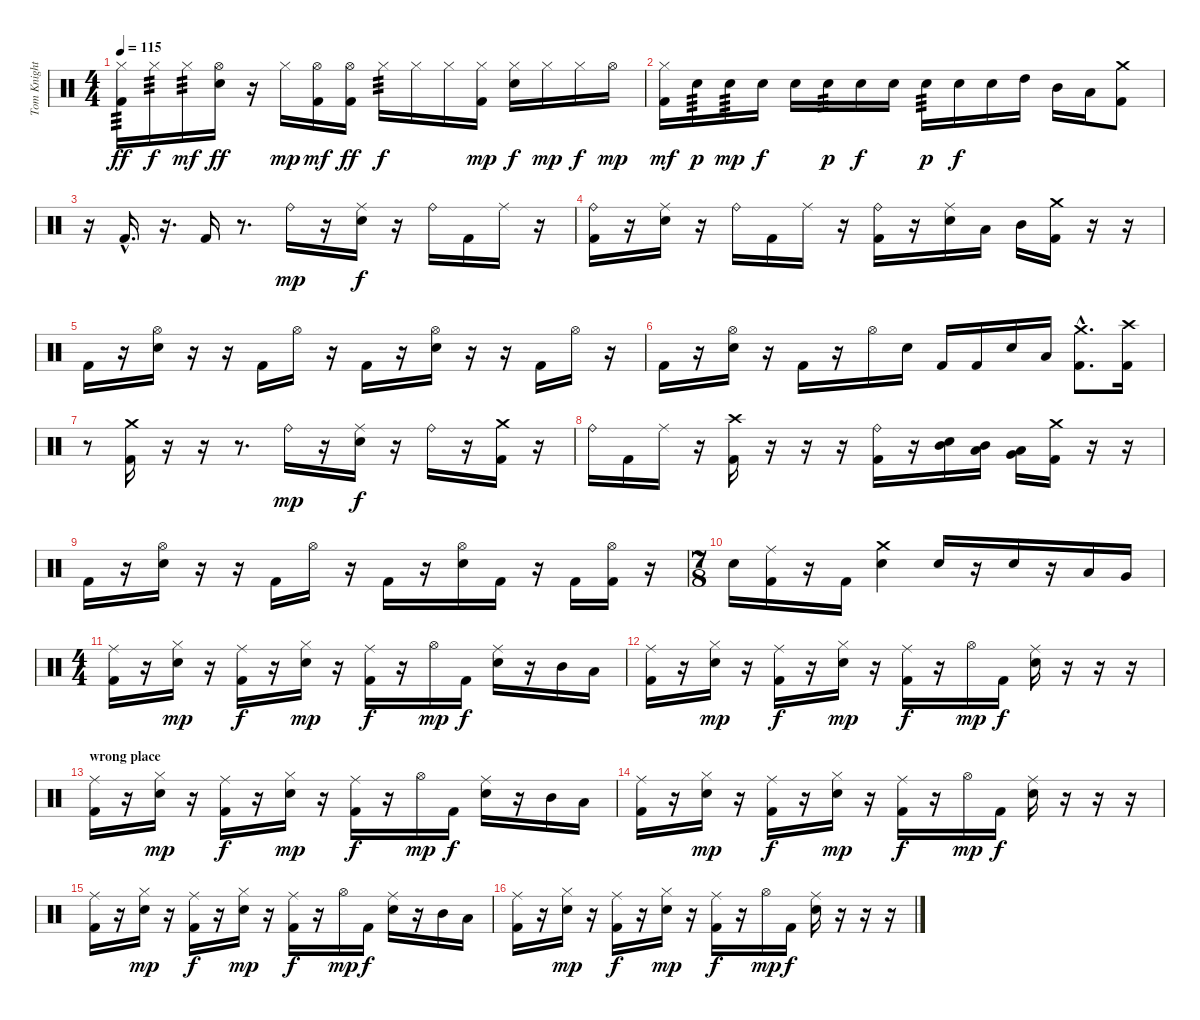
\track ("Tom Knight" "Tom Knight") {instrument percussion}
\staff {score}
\articulation defaults
\ts (4 4)
\tempo 115
\clef neutral
\ks c
("Hi-Hat (closed)" "Kick (hit) 2").16{tp 3 dy ff} "Hi-Hat (closed)".16{tp 3 dy f} "Hi-Hat (closed)".16{tp 3 dy mf} ("Hi-Hat (open)" "Electric Snare (hit)").16{dy ff} r.16 "Hi-Hat (closed)".16{dy mp} ("Hi-Hat (open)" "Kick (hit) 2").16{dy mf} ("Hi-Hat (open)" "Kick (hit) 2").16{dy ff} "Hi-Hat (closed)".16{tp 3 dy f} "Hi-Hat (closed)".16 "Hi-Hat (closed)".16 ("Hi-Hat (closed)" "Kick (hit) 2").16{dy mp} ("Hi-Hat (closed)" "Electric Snare (hit)").16{dy f} "Hi-Hat (closed)".16{dy mp} "Hi-Hat (closed)".16{dy f} "Hi-Hat (open)".16{dy mp} |
("Hi-Hat (closed)" "Kick (hit) 2").16{dy mf} "Electric Snare (hit)".16{tp 3 dy p} "Electric Snare (hit)".16{tp 3 dy mp} "Electric Snare (hit)".16{dy f} "Electric Snare (hit)".16 "Electric Snare (hit)".16{tp 3 dy p} "Electric Snare (hit)".16{dy f} "Electric Snare (hit)".16 "Electric Snare (hit)".16{tp 3 dy p} "Electric Snare (hit)".16{dy f} "Electric Snare (hit)".16 "High Tom (hit)".16 "Mid Tom (hit)".16 "Low Tom (hit)".16 ("Crash medium (hit)" "Kick (hit) 2").8 |
\section ("" "")
r.16 "Kick (hit) 2"{hac}.16{d} r.16{d} "Kick (hit) 2".16 r.8{d} "Ride (bell)".16{dy mp} r.16 ("Ride (middle)" "Electric Snare (hit)").16{dy f} r.16 "Ride (bell)".16 "Kick (hit) 2".16 "Ride (middle)".16 r.16 |
("Ride (bell)" "Kick (hit) 2").16 r.16 ("Ride (middle)" "Electric Snare (hit)").16 r.16 "Ride (bell)".16 "Kick (hit) 2".16 "Ride (middle)".16 r.16 ("Ride (bell)" "Kick (hit) 2").16 r.16 ("Ride (middle)" "Electric Snare (hit)").16 "Low Tom (hit)".16 "Mid Tom (hit)".16 ("Crash medium (hit)" "Kick (hit) 2").16 r.16 r.16 |
"Kick (hit) 2".16 r.16 ("Hi-Hat (open)" "Electric Snare (hit)").16 r.16 r.16 "Kick (hit) 2".16 "Hi-Hat (open)".16 r.16 "Kick (hit) 2".16 r.16 ("Hi-Hat (open)" "Electric Snare (hit)").16 r.16 r.16 "Kick (hit) 2".16 "Hi-Hat (open)".16 r.16 |
"Kick (hit) 2".16 r.16 ("Hi-Hat (open)" "Electric Snare (hit)").16 r.16 "Kick (hit) 2".16 r.16 "Hi-Hat (open)".16 "Electric Snare (hit)".16 "Kick (hit) 2".16 "Kick (hit) 2".16 "Electric Snare (hit)".16 "Low Tom (hit)".16 ("Crash medium (hit)"{hac} "Kick (hit) 2"{hac}).8{d} ("Crash high (hit)" "Kick (hit) 2").16 |
r.8 ("Crash medium (hit)" "Kick (hit) 2").16 r.16 r.16 r.8{d} "Ride (bell)".16{dy mp} r.16 ("Ride (middle)" "Electric Snare (hit)").16{dy f} r.16 "Ride (bell)".16 r.16 ("Crash medium (hit)" "Kick (hit) 2").16 r.16 |
"Ride (bell)".16 "Kick (hit) 2".16 "Ride (middle)".16 r.16 ("Crash high (hit)" "Kick (hit) 2").16 r.16 r.16 r.16 ("Ride (bell)" "Kick (hit) 2").16 r.16 ("Mid Tom (hit)" "Electric Snare (hit)").16{bd 480} ("Mid Tom (hit)" "Low Tom (hit)").16{bd 480} ("Low Tom (hit)" "Very Low Tom (hit)").16{bd 480} ("Crash medium (hit)" "Kick (hit) 2").16 r.16 r.16 |
"Kick (hit) 2".16 r.16 ("Hi-Hat (open)" "Electric Snare (hit)").16 r.16 r.16 "Kick (hit) 2".16 "Hi-Hat (open)".16 r.16 "Kick (hit) 2".16 r.16 ("Hi-Hat (open)" "Electric Snare (hit)").16 "Kick (hit) 2".16 r.16 "Kick (hit) 2".16 ("Hi-Hat (open)" "Kick (hit) 2").16 r.16 |
\ts (7 8)
"Electric Snare (hit)".16 ("Ride (middle)" "Kick (hit) 2").16 r.16 "Kick (hit) 2".16 ("Crash medium (hit)" "Electric Snare (hit)").4 "Electric Snare (hit)".16 r.16 "Electric Snare (hit)".16 r.16 "Low Tom (hit)".16 "Very Low Tom (hit)".16 |
\ts (4 4)
("Ride (middle)" "Kick (hit) 2").16 r.16 ("Hi-Hat (closed)" "Electric Snare (hit)").16{dy mp} r.16 ("Ride (middle)" "Kick (hit) 2").16{dy f} r.16 ("Hi-Hat (closed)" "Electric Snare (hit)").16{dy mp} r.16 ("Ride (middle)" "Kick (hit) 2").16{dy f} r.16 "Hi-Hat (open)".16{dy mp} "Kick (hit) 2".16{dy f} ("Ride (middle)" "Electric Snare (hit)").16 r.16 "Mid Tom (hit)".16 "Low Tom (hit)".16 |
("Ride (middle)" "Kick (hit) 2").16 r.16 ("Hi-Hat (closed)" "Electric Snare (hit)").16{dy mp} r.16 ("Ride (middle)" "Kick (hit) 2").16{dy f} r.16 ("Hi-Hat (closed)" "Electric Snare (hit)").16{dy mp} r.16 ("Ride (middle)" "Kick (hit) 2").16{dy f} r.16 "Hi-Hat (open)".16{dy mp} "Kick (hit) 2".16{dy f} ("Ride (middle)" "Electric Snare (hit)").16 r.16 r.16 r.16 |
\section ("" "wrong place")
("Ride (middle)" "Kick (hit) 2").16 r.16 ("Hi-Hat (closed)" "Electric Snare (hit)").16{dy mp} r.16 ("Ride (middle)" "Kick (hit) 2").16{dy f} r.16 ("Hi-Hat (closed)" "Electric Snare (hit)").16{dy mp} r.16 ("Ride (middle)" "Kick (hit) 2").16{dy f} r.16 "Hi-Hat (open)".16{dy mp} "Kick (hit) 2".16{dy f} ("Ride (middle)" "Electric Snare (hit)").16 r.16 "Mid Tom (hit)".16 "Low Tom (hit)".16 |
("Ride (middle)" "Kick (hit) 2").16 r.16 ("Hi-Hat (closed)" "Electric Snare (hit)").16{dy mp} r.16 ("Ride (middle)" "Kick (hit) 2").16{dy f} r.16 ("Hi-Hat (closed)" "Electric Snare (hit)").16{dy mp} r.16 ("Ride (middle)" "Kick (hit) 2").16{dy f} r.16 "Hi-Hat (open)".16{dy mp} "Kick (hit) 2".16{dy f} ("Ride (middle)" "Electric Snare (hit)").16 r.16 r.16 r.16 |
("Ride (middle)" "Kick (hit) 2").16 r.16 ("Hi-Hat (closed)" "Electric Snare (hit)").16{dy mp} r.16 ("Ride (middle)" "Kick (hit) 2").16{dy f} r.16 ("Hi-Hat (closed)" "Electric Snare (hit)").16{dy mp} r.16 ("Ride (middle)" "Kick (hit) 2").16{dy f} r.16 "Hi-Hat (open)".16{dy mp} "Kick (hit) 2".16{dy f} ("Ride (middle)" "Electric Snare (hit)").16 r.16 "Mid Tom (hit)".16 "Low Tom (hit)".16 |
("Ride (middle)" "Kick (hit) 2").16 r.16 ("Hi-Hat (closed)" "Electric Snare (hit)").16{dy mp} r.16 ("Ride (middle)" "Kick (hit) 2").16{dy f} r.16 ("Hi-Hat (closed)" "Electric Snare (hit)").16{dy mp} r.16 ("Ride (middle)" "Kick (hit) 2").16{dy f} r.16 "Hi-Hat (open)".16{dy mp} "Kick (hit) 2".16{dy f} ("Ride (middle)" "Electric Snare (hit)").16 r.16 r.16 r.16
